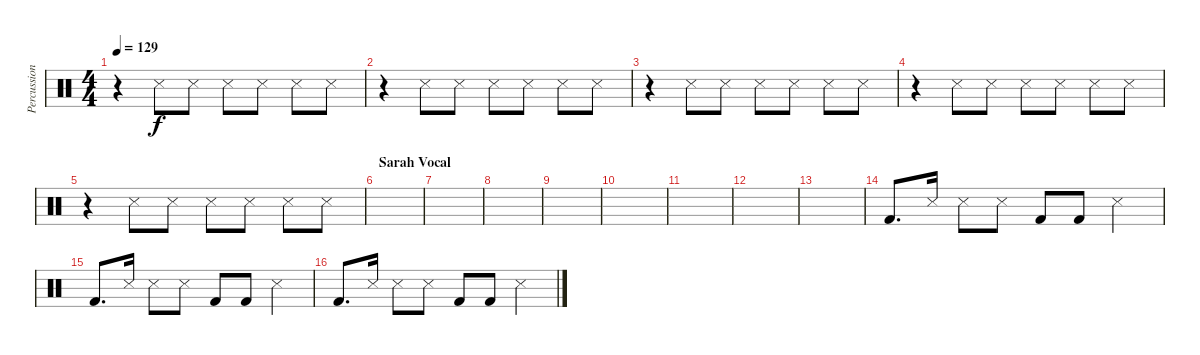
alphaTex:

\track ("Percussion (Joel)" "Percussion") {instrument percussion}
\staff {score}
\articulation defaults
\ts (4 4)
\tempo 129
\clef neutral
\ks c
r.4{dy f} "Snare (side stick) 3".8 "Snare (side stick) 3".8 "Snare (side stick) 3".8 "Snare (side stick) 3".8 "Snare (side stick) 3".8 "Snare (side stick) 3".8 |
r.4 "Snare (side stick) 3".8 "Snare (side stick) 3".8 "Snare (side stick) 3".8 "Snare (side stick) 3".8 "Snare (side stick) 3".8 "Snare (side stick) 3".8 |
r.4 "Snare (side stick) 3".8 "Snare (side stick) 3".8 "Snare (side stick) 3".8 "Snare (side stick) 3".8 "Snare (side stick) 3".8 "Snare (side stick) 3".8 |
r.4 "Snare (side stick) 3".8 "Snare (side stick) 3".8 "Snare (side stick) 3".8 "Snare (side stick) 3".8 "Snare (side stick) 3".8 "Snare (side stick) 3".8 |
r.4 "Snare (side stick) 3".8 "Snare (side stick) 3".8 "Snare (side stick) 3".8 "Snare (side stick) 3".8 "Snare (side stick) 3".8 "Snare (side stick) 3".8 |
\section ("" "Sarah Vocal")
|
|
|
|
|
|
|
|
"Kick (hit) 2".8{d} "Snare (side stick) 3".16 "Snare (side stick) 3".8 "Snare (side stick) 3".8 "Kick (hit) 2".8 "Kick (hit) 2".8 "Snare (side stick) 3".4 |
"Kick (hit) 2".8{d} "Snare (side stick) 3".16 "Snare (side stick) 3".8 "Snare (side stick) 3".8 "Kick (hit) 2".8 "Kick (hit) 2".8 "Snare (side stick) 3".4 |
"Kick (hit) 2".8{d} "Snare (side stick) 3".16 "Snare (side stick) 3".8 "Snare (side stick) 3".8 "Kick (hit) 2".8 "Kick (hit) 2".8 "Snare (side stick) 3".4
